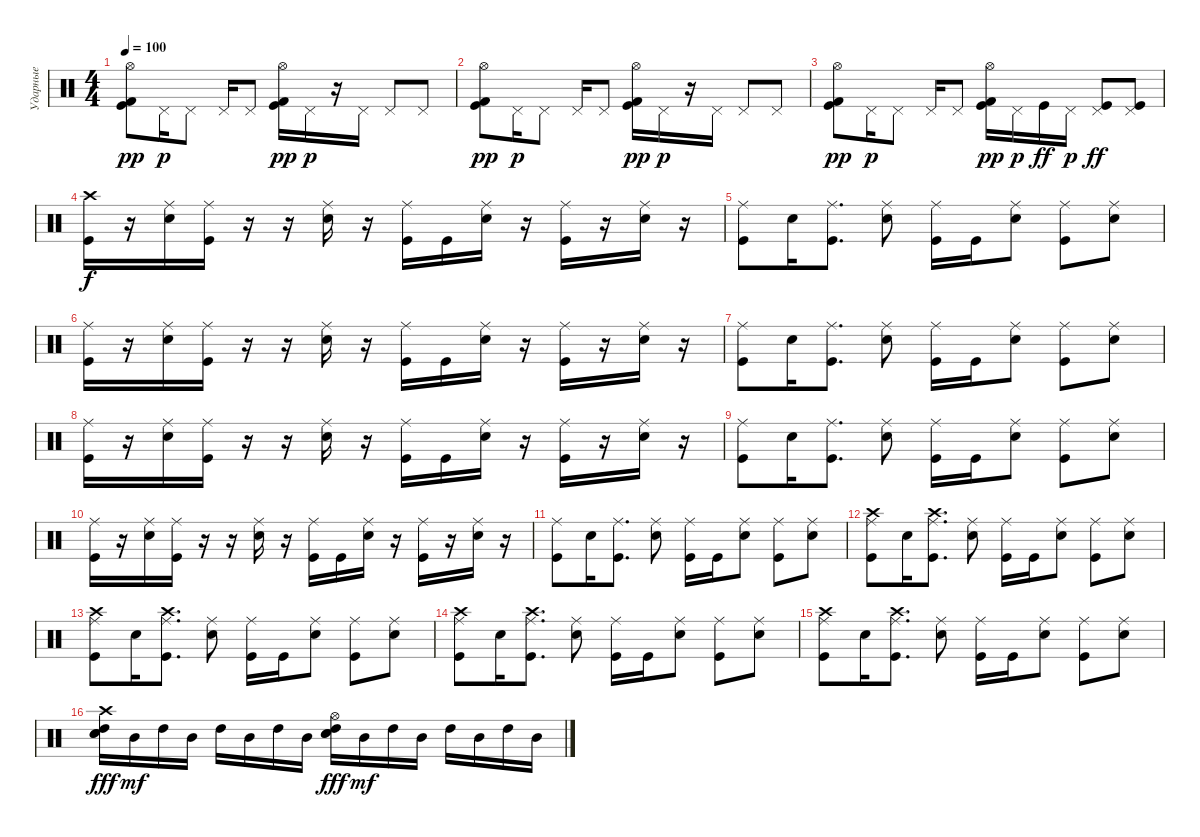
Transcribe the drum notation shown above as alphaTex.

\track ("Ударные" "Ударные") {instrument percussion}
\staff {score}
\articulation defaults
\ts (4 4)
\tempo 100
\clef neutral
\ks c
("Kick (hit)" "Kick (hit) 2" "Hi-Hat (open)").8{dy pp} "Pedal Hi-Hat (hit)".16{dy p} "Pedal Hi-Hat (hit)".8 "Pedal Hi-Hat (hit)".16 "Pedal Hi-Hat (hit)".8 ("Kick (hit)" "Kick (hit) 2" "Hi-Hat (open)").16{dy pp} "Pedal Hi-Hat (hit)".16{dy p} r.16 "Pedal Hi-Hat (hit)".16 "Pedal Hi-Hat (hit)".8 "Pedal Hi-Hat (hit)".8 |
("Kick (hit)" "Kick (hit) 2" "Hi-Hat (open)").8{dy pp} "Pedal Hi-Hat (hit)".16{dy p} "Pedal Hi-Hat (hit)".8 "Pedal Hi-Hat (hit)".16 "Pedal Hi-Hat (hit)".8 ("Kick (hit)" "Kick (hit) 2" "Hi-Hat (open)").16{dy pp} "Pedal Hi-Hat (hit)".16{dy p} r.16 "Pedal Hi-Hat (hit)".16 "Pedal Hi-Hat (hit)".8 "Pedal Hi-Hat (hit)".8 |
("Kick (hit)" "Kick (hit) 2" "Hi-Hat (open)").8{dy pp} "Pedal Hi-Hat (hit)".16{dy p} "Pedal Hi-Hat (hit)".8 "Pedal Hi-Hat (hit)".16 "Pedal Hi-Hat (hit)".8 ("Kick (hit)" "Kick (hit) 2" "Hi-Hat (open)").16{dy pp} "Pedal Hi-Hat (hit)".16{dy p} "Kick (hit)".16{dy ff} "Pedal Hi-Hat (hit)".16{dy p} ("Pedal Hi-Hat (hit)" "Kick (hit)").8{dy ff} ("Pedal Hi-Hat (hit)" "Kick (hit)").8 |
("Kick (hit)" "Crash high (hit)").16{dy f} r.16 ("Electric Snare (hit)" "Ride (middle)").16 ("Kick (hit)" "Ride (middle)").16 r.16 r.16 ("Electric Snare (hit)" "Ride (middle)").16 r.16 ("Kick (hit)" "Ride (middle)").16 "Kick (hit)".16 ("Electric Snare (hit)" "Ride (middle)").16 r.16 ("Kick (hit)" "Ride (middle)").16 r.16 ("Electric Snare (hit)" "Ride (middle)").16 r.16 |
("Kick (hit)" "Ride (middle)").8 "Snare (hit) 2".16 ("Kick (hit)" "Ride (middle)").8{d} ("Snare (hit) 2" "Ride (middle)").8 ("Kick (hit)" "Ride (middle)").16 "Kick (hit)".16 ("Snare (hit) 2" "Ride (middle)").8 ("Kick (hit)" "Ride (middle)").8 ("Snare (hit) 2" "Ride (middle)").8 |
("Kick (hit)" "Ride (middle)").16 r.16 ("Electric Snare (hit)" "Ride (middle)").16 ("Kick (hit)" "Ride (middle)").16 r.16 r.16 ("Electric Snare (hit)" "Ride (middle)").16 r.16 ("Kick (hit)" "Ride (middle)").16 "Kick (hit)".16 ("Electric Snare (hit)" "Ride (middle)").16 r.16 ("Kick (hit)" "Ride (middle)").16 r.16 ("Electric Snare (hit)" "Ride (middle)").16 r.16 |
("Kick (hit)" "Ride (middle)").8 "Snare (hit) 2".16 ("Kick (hit)" "Ride (middle)").8{d} ("Snare (hit) 2" "Ride (middle)").8 ("Kick (hit)" "Ride (middle)").16 "Kick (hit)".16 ("Snare (hit) 2" "Ride (middle)").8 ("Kick (hit)" "Ride (middle)").8 ("Snare (hit) 2" "Ride (middle)").8 |
("Kick (hit)" "Ride (middle)").16 r.16 ("Electric Snare (hit)" "Ride (middle)").16 ("Kick (hit)" "Ride (middle)").16 r.16 r.16 ("Electric Snare (hit)" "Ride (middle)").16 r.16 ("Kick (hit)" "Ride (middle)").16 "Kick (hit)".16 ("Electric Snare (hit)" "Ride (middle)").16 r.16 ("Kick (hit)" "Ride (middle)").16 r.16 ("Electric Snare (hit)" "Ride (middle)").16 r.16 |
("Kick (hit)" "Ride (middle)").8 "Snare (hit) 2".16 ("Kick (hit)" "Ride (middle)").8{d} ("Snare (hit) 2" "Ride (middle)").8 ("Kick (hit)" "Ride (middle)").16 "Kick (hit)".16 ("Snare (hit) 2" "Ride (middle)").8 ("Kick (hit)" "Ride (middle)").8 ("Snare (hit) 2" "Ride (middle)").8 |
("Kick (hit)" "Ride (middle)").16 r.16 ("Electric Snare (hit)" "Ride (middle)").16 ("Kick (hit)" "Ride (middle)").16 r.16 r.16 ("Electric Snare (hit)" "Ride (middle)").16 r.16 ("Kick (hit)" "Ride (middle)").16 "Kick (hit)".16 ("Electric Snare (hit)" "Ride (middle)").16 r.16 ("Kick (hit)" "Ride (middle)").16 r.16 ("Electric Snare (hit)" "Ride (middle)").16 r.16 |
("Kick (hit)" "Ride (middle)").8 "Snare (hit) 2".16 ("Kick (hit)" "Ride (middle)").8{d} ("Snare (hit) 2" "Ride (middle)").8 ("Kick (hit)" "Ride (middle)").16 "Kick (hit)".16 ("Snare (hit) 2" "Ride (middle)").8 ("Kick (hit)" "Ride (middle)").8 ("Snare (hit) 2" "Ride (middle)").8 |
("Kick (hit)" "Ride (middle)" "Crash high (hit)").8 "Snare (hit) 2".16 ("Kick (hit)" "Ride (middle)" "Crash high (hit)").8{d} ("Snare (hit) 2" "Ride (middle)").8 ("Kick (hit)" "Ride (middle)").16 "Kick (hit)".16 ("Snare (hit) 2" "Ride (middle)").8 ("Kick (hit)" "Ride (middle)").8 ("Snare (hit) 2" "Ride (middle)").8 |
("Kick (hit)" "Ride (middle)" "Crash high (hit)").8 "Snare (hit) 2".16 ("Kick (hit)" "Ride (middle)" "Crash high (hit)").8{d} ("Snare (hit) 2" "Ride (middle)").8 ("Kick (hit)" "Ride (middle)").16 "Kick (hit)".16 ("Snare (hit) 2" "Ride (middle)").8 ("Kick (hit)" "Ride (middle)").8 ("Snare (hit) 2" "Ride (middle)").8 |
("Kick (hit)" "Ride (middle)" "Crash high (hit)").8 "Snare (hit) 2".16 ("Kick (hit)" "Ride (middle)" "Crash high (hit)").8{d} ("Snare (hit) 2" "Ride (middle)").8 ("Kick (hit)" "Ride (middle)").16 "Kick (hit)".16 ("Snare (hit) 2" "Ride (middle)").8 ("Kick (hit)" "Ride (middle)").8 ("Snare (hit) 2" "Ride (middle)").8 |
("Kick (hit)" "Ride (middle)" "Crash high (hit)").8 "Snare (hit) 2".16 ("Kick (hit)" "Ride (middle)" "Crash high (hit)").8{d} ("Snare (hit) 2" "Ride (middle)").8 ("Kick (hit)" "Ride (middle)").16 "Kick (hit)".16 ("Snare (hit) 2" "Ride (middle)").8 ("Kick (hit)" "Ride (middle)").8 ("Snare (hit) 2" "Ride (middle)").8 |
("Crash high (hit)" "High Tom (hit)" "Snare (hit) 2" "Electric Snare (hit)").16{dy fff} "Mid Tom (hit)".16{dy mf} "High Tom (hit)".16 "Mid Tom (hit)".16 "High Tom (hit)".16 "Mid Tom (hit)".16 "High Tom (hit)".16 "Mid Tom (hit)".16 ("Hi-Hat (open)" "High Tom (hit)" "Snare (hit) 2" "Electric Snare (hit)").16{dy fff} "Mid Tom (hit)".16{dy mf} "High Tom (hit)".16 "Mid Tom (hit)".16 "High Tom (hit)".16 "Mid Tom (hit)".16 "High Tom (hit)".16 "Mid Tom (hit)".16
